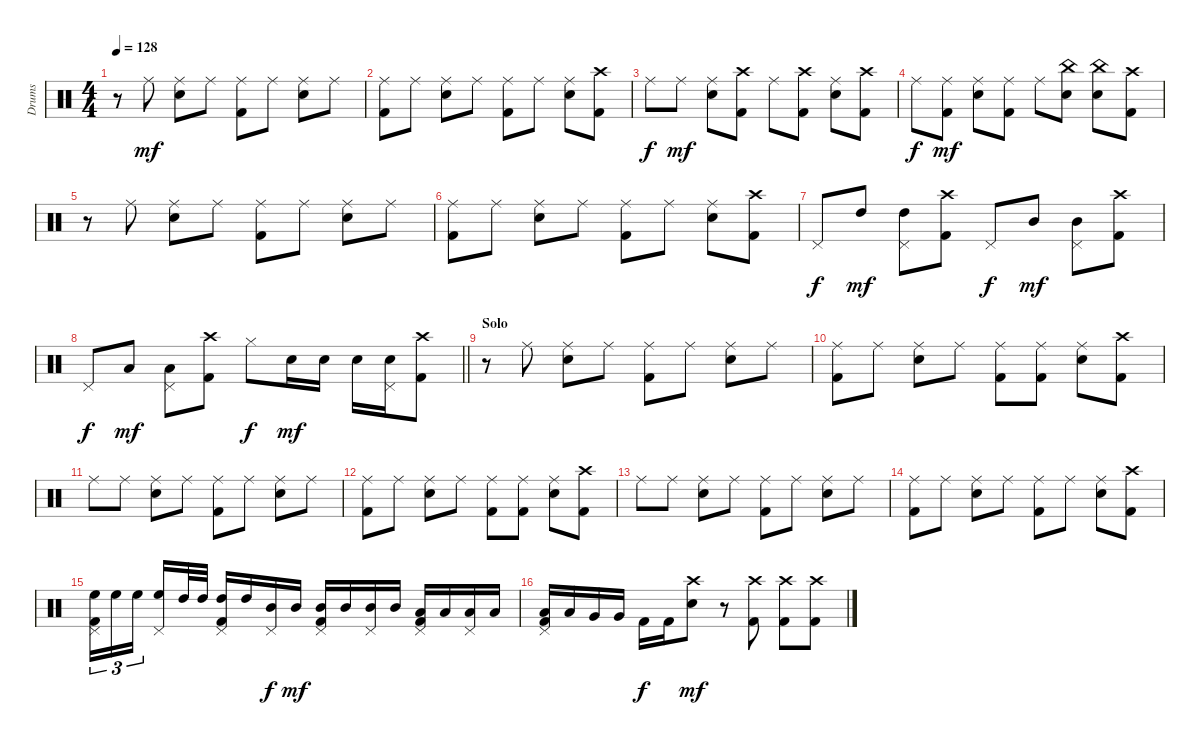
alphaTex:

\track ("Drums" "Drums") {instrument percussion}
\staff {score}
\articulation defaults
\ts (4 4)
\tempo 128
\clef neutral
\ks c
r.8{dy mf} "Ride (middle)".8 ("Ride (middle)" "Snare (hit) 2").8 "Ride (middle)".8 ("Ride (middle)" "Kick (hit) 2").8 "Ride (middle)".8 ("Ride (middle)" "Snare (hit) 2").8 "Ride (middle)".8 |
("Ride (middle)" "Kick (hit) 2").8 "Ride (middle)".8 ("Ride (middle)" "Snare (hit) 2").8 "Ride (middle)".8 ("Ride (middle)" "Kick (hit) 2").8 "Ride (middle)".8 ("Ride (middle)" "Snare (hit) 2").8 ("Crash high (hit)" "Kick (hit) 2").8 |
"Ride (middle)".8{dy f} "Ride (middle)".8{dy mf} ("Ride (middle)" "Snare (hit) 2").8 ("Crash high (hit)" "Kick (hit) 2").8 "Ride (middle)".8 ("Crash high (hit)" "Kick (hit) 2").8 ("Ride (middle)" "Snare (hit) 2").8 ("Crash high (hit)" "Kick (hit) 2").8 |
"Ride (middle)".8{dy f} ("Ride (middle)" "Kick (hit) 2").8{dy mf} ("Ride (middle)" "Snare (hit) 2").8 ("Ride (middle)" "Kick (hit) 2").8 "Ride (middle)".8 ("China (hit)" "Snare (hit) 2").8 ("China (hit)" "Snare (hit) 2").8 ("Crash high (hit)" "Kick (hit) 2").8 |
r.8 "Ride (middle)".8 ("Ride (middle)" "Snare (hit) 2").8 "Ride (middle)".8 ("Ride (middle)" "Kick (hit) 2").8 "Ride (middle)".8 ("Ride (middle)" "Snare (hit) 2").8 "Ride (middle)".8 |
("Ride (middle)" "Kick (hit) 2").8 "Ride (middle)".8 ("Ride (middle)" "Snare (hit) 2").8 "Ride (middle)".8 ("Ride (middle)" "Kick (hit) 2").8 "Ride (middle)".8 ("Ride (middle)" "Snare (hit) 2").8 ("Crash high (hit)" "Kick (hit) 2").8 |
"Pedal Hi-Hat (hit)".8{dy f} "High Tom (hit)".8{dy mf} ("Pedal Hi-Hat (hit)" "High Tom (hit)").8 ("Crash high (hit)" "Kick (hit) 2").8 "Pedal Hi-Hat (hit)".8{dy f} "Mid Tom (hit)".8{dy mf} ("Pedal Hi-Hat (hit)" "Mid Tom (hit)").8 ("Crash high (hit)" "Kick (hit) 2").8 |
\barLineRight lightlight "Pedal Hi-Hat (hit)".8{dy f} "Low Tom (hit)".8{dy mf}
("Low Tom (hit)" "Pedal Hi-Hat (hit)").8 ("Crash high (hit)" "Kick (hit) 2").8 "Hi-Hat (closed)".8{dy f} "Snare (hit) 2".16{dy mf} "Snare (hit) 2".16 "Snare (hit) 2".16 ("Pedal Hi-Hat (hit)" "Snare (hit) 2").16 ("Crash high (hit)" "Kick (hit) 2").8 |
\section ("" "Solo")
r.8 "Ride (middle)".8 ("Ride (middle)" "Snare (hit) 2").8 "Ride (middle)".8 ("Ride (middle)" "Kick (hit) 2").8 "Ride (middle)".8 ("Ride (middle)" "Snare (hit) 2").8 "Ride (middle)".8 |
("Ride (middle)" "Kick (hit) 2").8 "Ride (middle)".8 ("Ride (middle)" "Snare (hit) 2").8 "Ride (middle)".8 ("Ride (middle)" "Kick (hit) 2").8 ("Ride (middle)" "Kick (hit) 2").8 ("Ride (middle)" "Snare (hit) 2").8 ("Crash high (hit)" "Kick (hit) 2").8 |
"Ride (middle)".8 "Ride (middle)".8 ("Ride (middle)" "Snare (hit) 2").8 "Ride (middle)".8 ("Ride (middle)" "Kick (hit) 2").8 "Ride (middle)".8 ("Ride (middle)" "Snare (hit) 2").8 "Ride (middle)".8 |
("Ride (middle)" "Kick (hit) 2").8 "Ride (middle)".8 ("Ride (middle)" "Snare (hit) 2").8 "Ride (middle)".8 ("Ride (middle)" "Kick (hit) 2").8 ("Ride (middle)" "Kick (hit) 2").8 ("Ride (middle)" "Snare (hit) 2").8 ("Crash high (hit)" "Kick (hit) 2").8 |
"Ride (middle)".8 "Ride (middle)".8 ("Ride (middle)" "Snare (hit) 2").8 "Ride (middle)".8 ("Ride (middle)" "Kick (hit) 2").8 "Ride (middle)".8 ("Ride (middle)" "Snare (hit) 2").8 "Ride (middle)".8 |
("Ride (middle)" "Kick (hit) 2").8 "Ride (middle)".8 ("Ride (middle)" "Snare (hit) 2").8 "Ride (middle)".8 ("Ride (middle)" "Kick (hit) 2").8 "Ride (middle)".8 ("Ride (middle)" "Snare (hit) 2").8 ("Crash high (hit)" "Kick (hit) 2").8 |
("Pedal Hi-Hat (hit)" "High Floor Tom (hit)" "Kick (hit) 2").16{tu (3 2)} "High Floor Tom (hit)".16{tu (3 2)} "High Floor Tom (hit)".16{tu (3 2) beam splitsecondary} ("Pedal Hi-Hat (hit)" "High Floor Tom (hit)").16 "High Tom (hit)".32 "High Tom (hit)".32 ("Pedal Hi-Hat (hit)" "High Tom (hit)" "Kick (hit) 2").16 "High Tom (hit)".16 ("Pedal Hi-Hat (hit)" "Mid Tom (hit)").16{dy f} "Mid Tom (hit)".16{dy mf} ("Mid Tom (hit)" "Pedal Hi-Hat (hit)" "Kick (hit) 2").16 "Mid Tom (hit)".16 ("Mid Tom (hit)" "Pedal Hi-Hat (hit)").16 "Mid Tom (hit)".16 ("Low Tom (hit)" "Pedal Hi-Hat (hit)" "Kick (hit) 2").16 "Low Tom (hit)".16 ("Low Tom (hit)" "Pedal Hi-Hat (hit)").16 "Low Tom (hit)".16 |
("Low Tom (hit)" "Pedal Hi-Hat (hit)" "Kick (hit) 2").16 "Low Tom (hit)".16 "Very Low Tom (hit)".16 "Very Low Tom (hit)".16 "Kick (hit) 2".16{dy f} "Kick (hit) 2".16 ("Crash high (hit)" "Snare (hit) 2").8{dy mf} r.8 ("Kick (hit) 2" "Crash high (hit)").8 ("Kick (hit) 2" "Crash high (hit)").8 ("Kick (hit) 2" "Crash high (hit)").8
